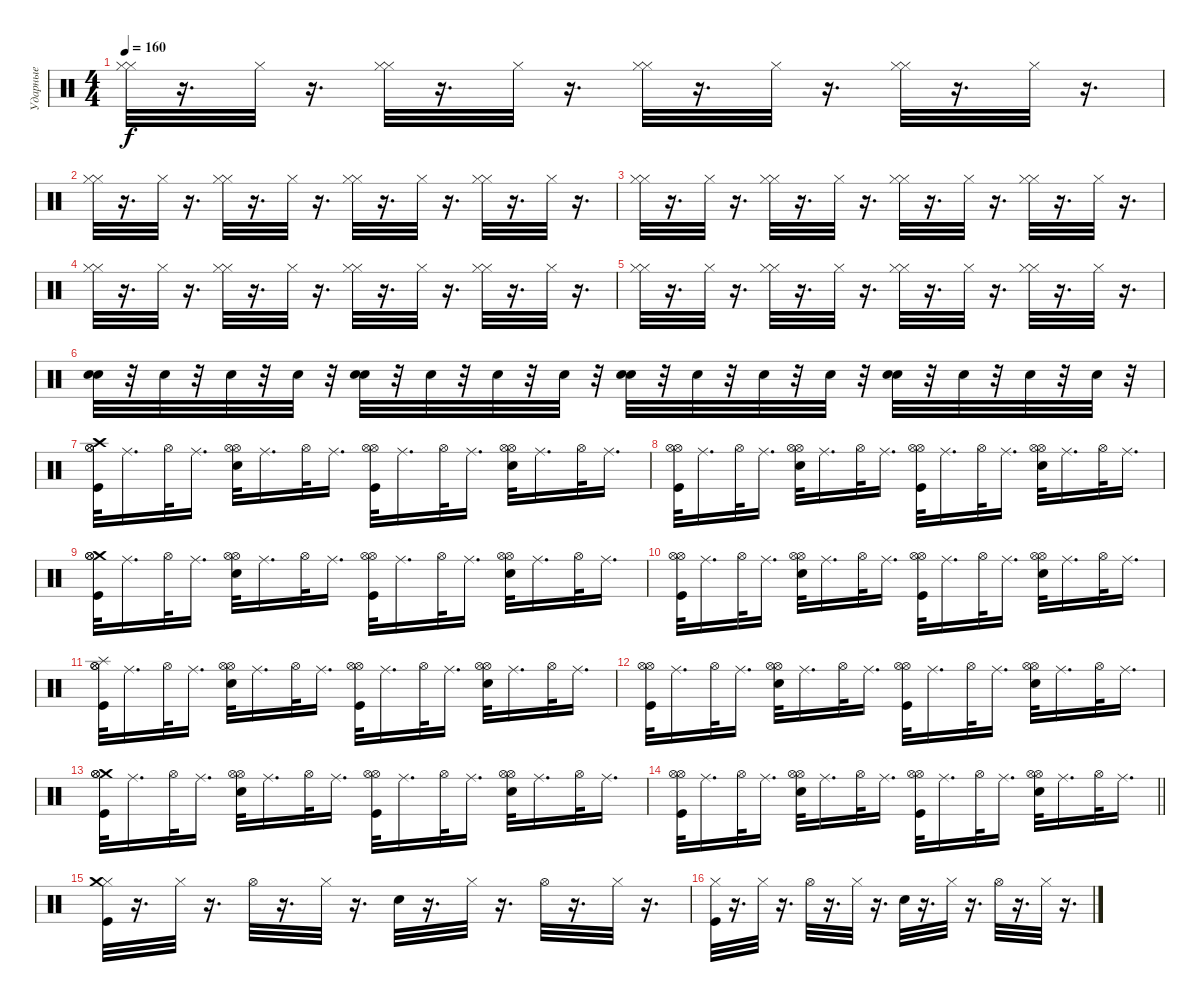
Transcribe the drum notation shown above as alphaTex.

\track ("Ударные" "Ударные") {instrument percussion}
\staff {score}
\articulation defaults
\ts (4 4)
\tempo 160
\clef neutral
\ks c
("Hi-Hat (closed)" "Hi-Hat (closed)").32{dy f} r.16{d} "Hi-Hat (closed)".32 r.16{d} ("Hi-Hat (closed)" "Hi-Hat (closed)").32 r.16{d} "Hi-Hat (closed)".32 r.16{d} ("Hi-Hat (closed)" "Hi-Hat (closed)").32 r.16{d} "Hi-Hat (closed)".32 r.16{d} ("Hi-Hat (closed)" "Hi-Hat (closed)").32 r.16{d} "Hi-Hat (closed)".32 r.16{d} |
("Hi-Hat (closed)" "Hi-Hat (closed)").32 r.16{d} "Hi-Hat (closed)".32 r.16{d} ("Hi-Hat (closed)" "Hi-Hat (closed)").32 r.16{d} "Hi-Hat (closed)".32 r.16{d} ("Hi-Hat (closed)" "Hi-Hat (closed)").32 r.16{d} "Hi-Hat (closed)".32 r.16{d} ("Hi-Hat (closed)" "Hi-Hat (closed)").32 r.16{d} "Hi-Hat (closed)".32 r.16{d} |
("Hi-Hat (closed)" "Hi-Hat (closed)").32 r.16{d} "Hi-Hat (closed)".32 r.16{d} ("Hi-Hat (closed)" "Hi-Hat (closed)").32 r.16{d} "Hi-Hat (closed)".32 r.16{d} ("Hi-Hat (closed)" "Hi-Hat (closed)").32 r.16{d} "Hi-Hat (closed)".32 r.16{d} ("Hi-Hat (closed)" "Hi-Hat (closed)").32 r.16{d} "Hi-Hat (closed)".32 r.16{d} |
("Hi-Hat (closed)" "Hi-Hat (closed)").32 r.16{d} "Hi-Hat (closed)".32 r.16{d} ("Hi-Hat (closed)" "Hi-Hat (closed)").32 r.16{d} "Hi-Hat (closed)".32 r.16{d} ("Hi-Hat (closed)" "Hi-Hat (closed)").32 r.16{d} "Hi-Hat (closed)".32 r.16{d} ("Hi-Hat (closed)" "Hi-Hat (closed)").32 r.16{d} "Hi-Hat (closed)".32 r.16{d} |
("Hi-Hat (closed)" "Hi-Hat (closed)").32 r.16{d} "Hi-Hat (closed)".32 r.16{d} ("Hi-Hat (closed)" "Hi-Hat (closed)").32 r.16{d} "Hi-Hat (closed)".32 r.16{d} ("Hi-Hat (closed)" "Hi-Hat (closed)").32 r.16{d} "Hi-Hat (closed)".32 r.16{d} ("Hi-Hat (closed)" "Hi-Hat (closed)").32 r.16{d} "Hi-Hat (closed)".32 r.16{d} |
("Snare (hit) 2" "Snare (hit) 2").32 r.32 "Snare (hit) 2".32 r.32 "Snare (hit) 2".32 r.32 "Snare (hit) 2".32 r.32 ("Snare (hit) 2" "Snare (hit) 2").32 r.32 "Snare (hit) 2".32 r.32 "Snare (hit) 2".32 r.32 "Snare (hit) 2".32 r.32 ("Snare (hit) 2" "Snare (hit) 2").32 r.32 "Snare (hit) 2".32 r.32 "Snare (hit) 2".32 r.32 "Snare (hit) 2".32 r.32 ("Snare (hit) 2" "Snare (hit) 2").32 r.32 "Snare (hit) 2".32 r.32 "Snare (hit) 2".32 r.32 "Snare (hit) 2".32 r.32 |
("Crash high (hit)" "Kick (hit)" "Hi-Hat (open)" "Hi-Hat (open)").32 "Ride (middle)".16{d} "Hi-Hat (open)".32 "Ride (middle)".16{d} ("Hi-Hat (open)" "Snare (hit) 2" "Hi-Hat (open)").32 "Ride (middle)".16{d} "Hi-Hat (open)".32 "Ride (middle)".16{d} ("Hi-Hat (open)" "Kick (hit)" "Hi-Hat (open)").32 "Ride (middle)".16{d} "Hi-Hat (open)".32 "Ride (middle)".16{d} ("Hi-Hat (open)" "Hi-Hat (open)" "Snare (hit) 2").32 "Ride (middle)".16{d} "Hi-Hat (open)".32 "Ride (middle)".16{d} |
("Hi-Hat (open)" "Hi-Hat (open)" "Kick (hit)").32 "Ride (middle)".16{d} "Hi-Hat (open)".32 "Ride (middle)".16{d} ("Snare (hit) 2" "Hi-Hat (open)" "Hi-Hat (open)").32 "Ride (middle)".16{d} "Hi-Hat (open)".32 "Ride (middle)".16{d} ("Kick (hit)" "Hi-Hat (open)" "Hi-Hat (open)").32 "Ride (middle)".16{d} "Hi-Hat (open)".32 "Ride (middle)".16{d} ("Hi-Hat (open)" "Hi-Hat (open)" "Snare (hit) 2").32 "Ride (middle)".16{d} "Hi-Hat (open)".32 "Ride (middle)".16{d} |
("Crash medium (hit)" "Hi-Hat (open)" "Kick (hit)" "Hi-Hat (open)").32 "Ride (middle)".16{d} "Hi-Hat (open)".32 "Ride (middle)".16{d} ("Hi-Hat (open)" "Snare (hit) 2" "Hi-Hat (open)").32 "Ride (middle)".16{d} "Hi-Hat (open)".32 "Ride (middle)".16{d} ("Kick (hit)" "Hi-Hat (open)" "Hi-Hat (open)").32 "Ride (middle)".16{d} "Hi-Hat (open)".32 "Ride (middle)".16{d} ("Hi-Hat (open)" "Hi-Hat (open)" "Snare (hit) 2").32 "Ride (middle)".16{d} "Hi-Hat (open)".32 "Ride (middle)".16{d} |
("Kick (hit)" "Hi-Hat (open)" "Hi-Hat (open)").32 "Ride (middle)".16{d} "Hi-Hat (open)".32 "Ride (middle)".16{d} ("Snare (hit) 2" "Hi-Hat (open)" "Hi-Hat (open)").32 "Ride (middle)".16{d} "Hi-Hat (open)".32 "Ride (middle)".16{d} ("Kick (hit)" "Hi-Hat (open)" "Hi-Hat (open)").32 "Ride (middle)".16{d} "Hi-Hat (open)".32 "Ride (middle)".16{d} ("Hi-Hat (open)" "Snare (hit) 2" "Hi-Hat (open)").32 "Ride (middle)".16{d} "Hi-Hat (open)".32 "Ride (middle)".16{d} |
("Splash (hit)" "Hi-Hat (open)" "Kick (hit)" "Hi-Hat (open)").32 "Ride (middle)".16{d} "Hi-Hat (open)".32 "Ride (middle)".16{d} ("Hi-Hat (open)" "Hi-Hat (open)" "Snare (hit) 2").32 "Ride (middle)".16{d} "Hi-Hat (open)".32 "Ride (middle)".16{d} ("Hi-Hat (open)" "Hi-Hat (open)" "Kick (hit)").32 "Ride (middle)".16{d} "Hi-Hat (open)".32 "Ride (middle)".16{d} ("Snare (hit) 2" "Hi-Hat (open)" "Hi-Hat (open)").32 "Ride (middle)".16{d} "Hi-Hat (open)".32 "Ride (middle)".16{d} |
("Kick (hit)" "Hi-Hat (open)" "Hi-Hat (open)").32 "Ride (middle)".16{d} "Hi-Hat (open)".32 "Ride (middle)".16{d} ("Snare (hit) 2" "Hi-Hat (open)" "Hi-Hat (open)").32 "Ride (middle)".16{d} "Hi-Hat (open)".32 "Ride (middle)".16{d} ("Hi-Hat (open)" "Kick (hit)" "Hi-Hat (open)").32 "Ride (middle)".16{d} "Hi-Hat (open)".32 "Ride (middle)".16{d} ("Hi-Hat (open)" "Snare (hit) 2" "Hi-Hat (open)").32 "Ride (middle)".16{d} "Hi-Hat (open)".32 "Ride (middle)".16{d} |
("Crash medium (hit)" "Kick (hit)" "Hi-Hat (open)" "Hi-Hat (open)").32 "Ride (middle)".16{d} "Hi-Hat (open)".32 "Ride (middle)".16{d} ("Hi-Hat (open)" "Hi-Hat (open)" "Snare (hit) 2").32 "Ride (middle)".16{d} "Hi-Hat (open)".32 "Ride (middle)".16{d} ("Kick (hit)" "Hi-Hat (open)" "Hi-Hat (open)").32 "Ride (middle)".16{d} "Hi-Hat (open)".32 "Ride (middle)".16{d} ("Snare (hit) 2" "Hi-Hat (open)" "Hi-Hat (open)").32 "Ride (middle)".16{d} "Hi-Hat (open)".32 "Ride (middle)".16{d} |
\barLineRight lightlight
("Kick (hit)" "Hi-Hat (open)" "Hi-Hat (open)").32 "Ride (middle)".16{d} "Hi-Hat (open)".32 "Ride (middle)".16{d} ("Hi-Hat (open)" "Snare (hit) 2" "Hi-Hat (open)").32 "Ride (middle)".16{d} "Hi-Hat (open)".32 "Ride (middle)".16{d} ("Kick (hit)" "Hi-Hat (open)" "Hi-Hat (open)").32 "Ride (middle)".16{d} "Hi-Hat (open)".32 "Ride (middle)".16{d} ("Snare (hit) 2" "Hi-Hat (open)" "Hi-Hat (open)").32 "Ride (middle)".16{d} "Hi-Hat (open)".32 "Ride (middle)".16{d} |
("Hi-Hat (closed)" "Kick (hit)" "Crash medium (hit)").32 r.16{d} "Hi-Hat (closed)".32 r.16{d} "Hi-Hat (open)".32 r.16{d} "Hi-Hat (closed)".32 r.16{d} "Snare (hit) 2".32 r.16{d} "Hi-Hat (closed)".32 r.16{d} "Hi-Hat (open)".32 r.16{d} "Hi-Hat (closed)".32 r.16{d} |
("Hi-Hat (closed)" "Kick (hit)").32 r.16{d} "Hi-Hat (closed)".32 r.16{d} "Hi-Hat (open)".32 r.16{d} "Hi-Hat (closed)".32 r.16{d} "Snare (hit) 2".32 r.16{d} "Hi-Hat (closed)".32 r.16{d} "Hi-Hat (open)".32 r.16{d} "Hi-Hat (closed)".32 r.16{d}
